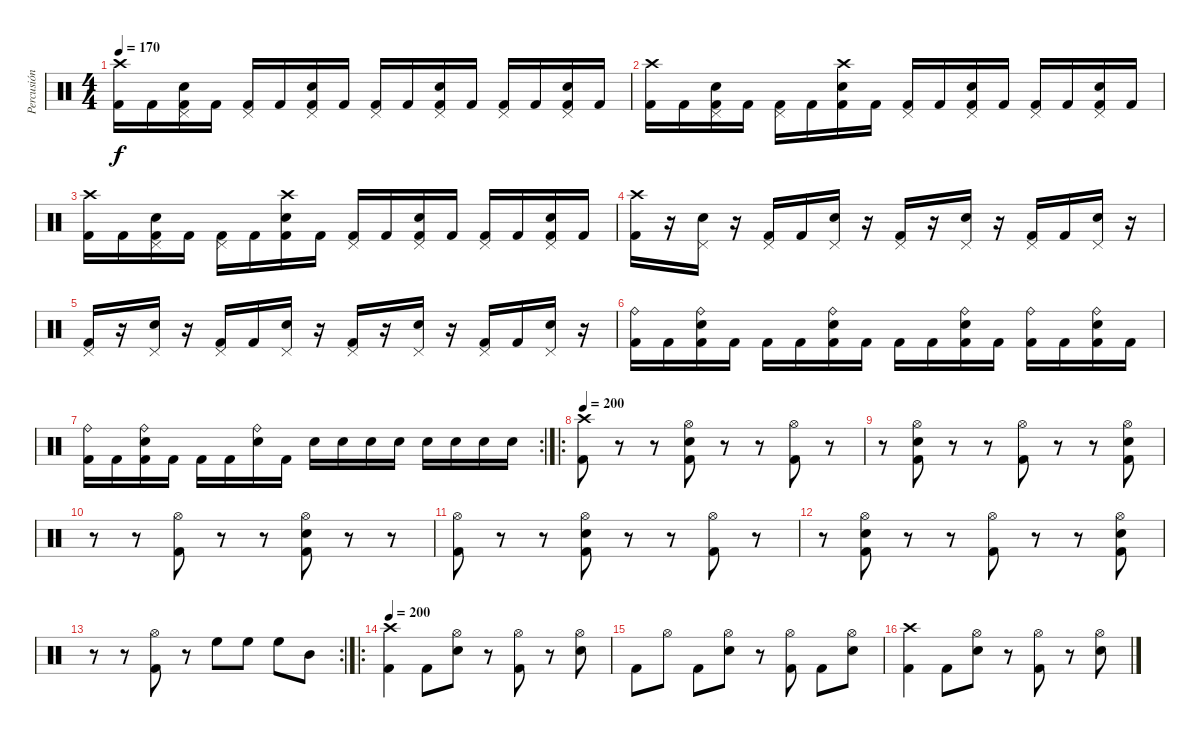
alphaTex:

\track ("Percusión" "Percusión") {instrument percussion}
\staff {score}
\articulation defaults
\ts (4 4)
\tempo 170
\clef neutral
\ks c
("Crash high (hit)" "Kick (hit) 2").16{dy f} "Kick (hit) 2".16 ("Pedal Hi-Hat (hit)" "Kick (hit) 2" "Electric Snare (hit)").16 "Kick (hit) 2".16 ("Pedal Hi-Hat (hit)" "Kick (hit) 2").16 "Kick (hit) 2".16 ("Pedal Hi-Hat (hit)" "Kick (hit) 2" "Electric Snare (hit)").16 "Kick (hit) 2".16 ("Pedal Hi-Hat (hit)" "Kick (hit) 2").16 "Kick (hit) 2".16 ("Pedal Hi-Hat (hit)" "Kick (hit) 2" "Electric Snare (hit)").16 "Kick (hit) 2".16 ("Pedal Hi-Hat (hit)" "Kick (hit) 2").16 "Kick (hit) 2".16 ("Pedal Hi-Hat (hit)" "Kick (hit) 2" "Electric Snare (hit)").16 "Kick (hit) 2".16 |
("Crash high (hit)" "Kick (hit) 2").16 "Kick (hit) 2".16 ("Pedal Hi-Hat (hit)" "Kick (hit) 2" "Electric Snare (hit)").16 "Kick (hit) 2".16 ("Pedal Hi-Hat (hit)" "Kick (hit) 2").16 "Kick (hit) 2".16 ("Crash high (hit)" "Kick (hit) 2" "Electric Snare (hit)").16 "Kick (hit) 2".16 ("Pedal Hi-Hat (hit)" "Kick (hit) 2").16 "Kick (hit) 2".16 ("Pedal Hi-Hat (hit)" "Kick (hit) 2" "Electric Snare (hit)").16 "Kick (hit) 2".16 ("Pedal Hi-Hat (hit)" "Kick (hit) 2").16 "Kick (hit) 2".16 ("Pedal Hi-Hat (hit)" "Kick (hit) 2" "Electric Snare (hit)").16 "Kick (hit) 2".16 |
("Crash high (hit)" "Kick (hit) 2").16 "Kick (hit) 2".16 ("Pedal Hi-Hat (hit)" "Kick (hit) 2" "Electric Snare (hit)").16 "Kick (hit) 2".16 ("Pedal Hi-Hat (hit)" "Kick (hit) 2").16 "Kick (hit) 2".16 ("Crash high (hit)" "Kick (hit) 2" "Electric Snare (hit)").16 "Kick (hit) 2".16 ("Pedal Hi-Hat (hit)" "Kick (hit) 2").16 "Kick (hit) 2".16 ("Pedal Hi-Hat (hit)" "Kick (hit) 2" "Electric Snare (hit)").16 "Kick (hit) 2".16 ("Pedal Hi-Hat (hit)" "Kick (hit) 2").16 "Kick (hit) 2".16 ("Pedal Hi-Hat (hit)" "Kick (hit) 2" "Electric Snare (hit)").16 "Kick (hit) 2".16 |
("Crash high (hit)" "Kick (hit) 2").16 r.16 ("Pedal Hi-Hat (hit)" "Electric Snare (hit)").16 r.16 ("Pedal Hi-Hat (hit)" "Kick (hit) 2").16 "Kick (hit) 2".16 ("Pedal Hi-Hat (hit)" "Electric Snare (hit)").16 r.16 ("Pedal Hi-Hat (hit)" "Kick (hit) 2").16 r.16 ("Pedal Hi-Hat (hit)" "Electric Snare (hit)").16 r.16 ("Pedal Hi-Hat (hit)" "Kick (hit) 2").16 "Kick (hit) 2".16 ("Pedal Hi-Hat (hit)" "Electric Snare (hit)").16 r.16 |
("Pedal Hi-Hat (hit)" "Kick (hit) 2").16 r.16 ("Pedal Hi-Hat (hit)" "Electric Snare (hit)").16 r.16 ("Pedal Hi-Hat (hit)" "Kick (hit) 2").16 "Kick (hit) 2".16 ("Pedal Hi-Hat (hit)" "Electric Snare (hit)").16 r.16 ("Pedal Hi-Hat (hit)" "Kick (hit) 2").16 r.16 ("Pedal Hi-Hat (hit)" "Electric Snare (hit)").16 r.16 ("Pedal Hi-Hat (hit)" "Kick (hit) 2").16 "Kick (hit) 2".16 ("Pedal Hi-Hat (hit)" "Electric Snare (hit)").16 r.16 |
("Ride (bell)" "Kick (hit) 2").16 "Kick (hit) 2".16 ("Ride (bell)" "Kick (hit) 2" "Electric Snare (hit)").16 "Kick (hit) 2".16 "Kick (hit) 2".16 "Kick (hit) 2".16 ("Ride (bell)" "Kick (hit) 2" "Electric Snare (hit)").16 "Kick (hit) 2".16 "Kick (hit) 2".16 "Kick (hit) 2".16 ("Ride (bell)" "Kick (hit) 2" "Electric Snare (hit)").16 "Kick (hit) 2".16 ("Ride (bell)" "Kick (hit) 2").16 "Kick (hit) 2".16 ("Ride (bell)" "Kick (hit) 2" "Electric Snare (hit)").16 "Kick (hit) 2".16 |
\rc 2
("Ride (bell)" "Kick (hit) 2").16 "Kick (hit) 2".16 ("Ride (bell)" "Kick (hit) 2" "Electric Snare (hit)").16 "Kick (hit) 2".16 "Kick (hit) 2".16 "Kick (hit) 2".16 ("Ride (bell)" "Electric Snare (hit)").16 "Kick (hit) 2".16 "Electric Snare (hit)".16 "Electric Snare (hit)".16 "Electric Snare (hit)".16 "Electric Snare (hit)".16 "Electric Snare (hit)".16 "Electric Snare (hit)".16 "Electric Snare (hit)".16 "Electric Snare (hit)".16 |
\ro
\tempo 200
("Crash high (hit)" "Kick (hit) 2").8 r.8 r.8 ("Hi-Hat (open)" "Kick (hit) 2" "Electric Snare (hit)").8 r.8 r.8 ("Hi-Hat (open)" "Kick (hit) 2").8 r.8 |
r.8 ("Hi-Hat (open)" "Kick (hit) 2" "Electric Snare (hit)").8 r.8 r.8 ("Hi-Hat (open)" "Kick (hit) 2").8 r.8 r.8 ("Hi-Hat (open)" "Kick (hit) 2" "Electric Snare (hit)").8 |
r.8 r.8 ("Hi-Hat (open)" "Kick (hit) 2").8 r.8 r.8 ("Hi-Hat (open)" "Kick (hit) 2" "Electric Snare (hit)").8 r.8 r.8 |
("Hi-Hat (open)" "Kick (hit) 2").8 r.8 r.8 ("Hi-Hat (open)" "Kick (hit) 2" "Electric Snare (hit)").8 r.8 r.8 ("Hi-Hat (open)" "Kick (hit) 2").8 r.8 |
r.8 ("Hi-Hat (open)" "Kick (hit) 2" "Electric Snare (hit)").8 r.8 r.8 ("Hi-Hat (open)" "Kick (hit) 2").8 r.8 r.8 ("Hi-Hat (open)" "Kick (hit) 2" "Electric Snare (hit)").8 |
\rc 2
r.8 r.8 ("Hi-Hat (open)" "Kick (hit) 2").8 r.8 "High Floor Tom (hit)".8 "High Floor Tom (hit)".8 "High Floor Tom (hit)".8 "Mid Tom (hit)".8 |
\ro
\tempo 170
\tempo 200
("Crash high (hit)" "Kick (hit) 2").4 "Kick (hit) 2".8 ("Hi-Hat (open)" "Electric Snare (hit)").8 r.8 ("Hi-Hat (open)" "Kick (hit) 2").8 r.8 ("Hi-Hat (open)" "Electric Snare (hit)").8 |
"Kick (hit) 2".8 "Hi-Hat (open)".8 "Kick (hit) 2".8 ("Hi-Hat (open)" "Electric Snare (hit)").8 r.8 ("Hi-Hat (open)" "Kick (hit) 2").8 "Kick (hit) 2".8 ("Hi-Hat (open)" "Electric Snare (hit)").8 |
("Crash high (hit)" "Kick (hit) 2").4 "Kick (hit) 2".8 ("Hi-Hat (open)" "Electric Snare (hit)").8 r.8 ("Hi-Hat (open)" "Kick (hit) 2").8 r.8 ("Hi-Hat (open)" "Electric Snare (hit)").8
